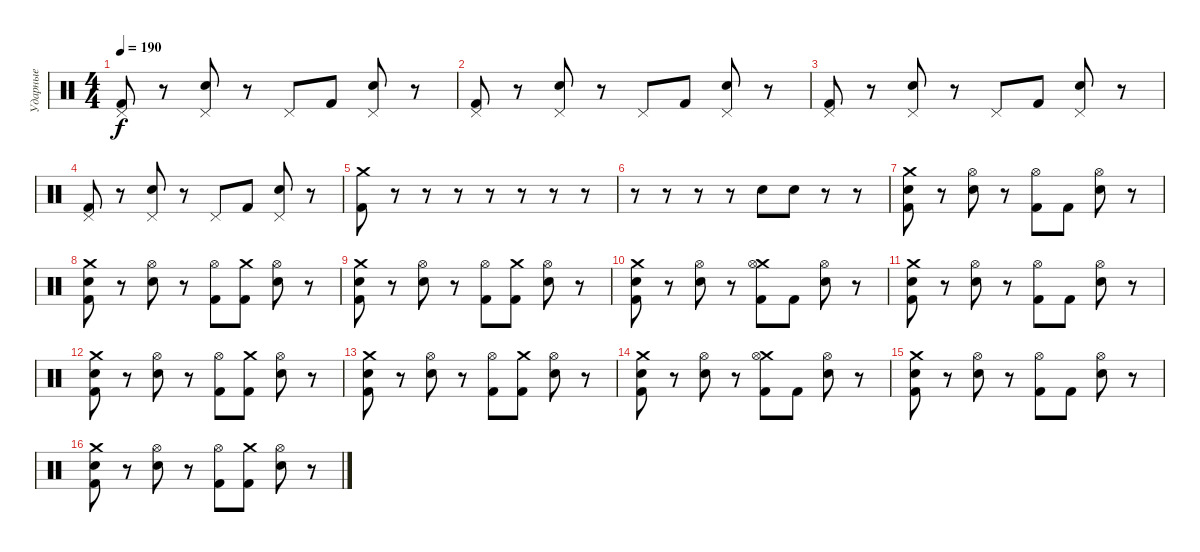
\track ("Ударные" "Ударные") {instrument percussion}
\staff {score}
\articulation defaults
\ts (4 4)
\tempo 190
\clef neutral
\ks c
("Pedal Hi-Hat (hit)" "Kick (hit) 2").8{dy f} r.8 ("Pedal Hi-Hat (hit)" "Electric Snare (hit)").8 r.8 "Pedal Hi-Hat (hit)".8 "Kick (hit) 2".8 ("Pedal Hi-Hat (hit)" "Electric Snare (hit)").8 r.8 |
("Pedal Hi-Hat (hit)" "Kick (hit) 2").8 r.8 ("Pedal Hi-Hat (hit)" "Electric Snare (hit)").8 r.8 "Pedal Hi-Hat (hit)".8 "Kick (hit) 2".8 ("Pedal Hi-Hat (hit)" "Electric Snare (hit)").8 r.8 |
("Pedal Hi-Hat (hit)" "Kick (hit) 2").8 r.8 ("Pedal Hi-Hat (hit)" "Electric Snare (hit)").8 r.8 "Pedal Hi-Hat (hit)".8 "Kick (hit) 2".8 ("Pedal Hi-Hat (hit)" "Electric Snare (hit)").8 r.8 |
("Pedal Hi-Hat (hit)" "Kick (hit) 2").8 r.8 ("Pedal Hi-Hat (hit)" "Electric Snare (hit)").8 r.8 "Pedal Hi-Hat (hit)".8 "Kick (hit) 2".8 ("Pedal Hi-Hat (hit)" "Electric Snare (hit)").8 r.8 |
("Crash medium (hit)" "Kick (hit) 2").8 r.8 r.8 r.8 r.8 r.8 r.8 r.8 |
r.8 r.8 r.8 r.8 "Electric Snare (hit)".8 "Electric Snare (hit)".8 r.8 r.8 |
("Crash medium (hit)" "Electric Snare (hit)" "Kick (hit) 2").8 r.8 ("Electric Snare (hit)" "Hi-Hat (open)").8 r.8 ("Kick (hit) 2" "Hi-Hat (open)").8 "Kick (hit) 2".8 ("Electric Snare (hit)" "Hi-Hat (open)").8 r.8 |
("Crash medium (hit)" "Electric Snare (hit)" "Kick (hit) 2").8 r.8 ("Electric Snare (hit)" "Hi-Hat (open)").8 r.8 ("Kick (hit) 2" "Hi-Hat (open)").8 ("Kick (hit) 2" "Crash medium (hit)").8 ("Electric Snare (hit)" "Hi-Hat (open)").8 r.8 |
("Crash medium (hit)" "Electric Snare (hit)" "Kick (hit) 2").8 r.8 ("Electric Snare (hit)" "Hi-Hat (open)").8 r.8 ("Kick (hit) 2" "Hi-Hat (open)").8 ("Kick (hit) 2" "Crash medium (hit)").8 ("Electric Snare (hit)" "Hi-Hat (open)").8 r.8 |
("Crash medium (hit)" "Electric Snare (hit)" "Kick (hit) 2").8 r.8 ("Electric Snare (hit)" "Hi-Hat (open)").8 r.8 ("Kick (hit) 2" "Crash medium (hit)" "Hi-Hat (open)").8 "Kick (hit) 2".8 ("Electric Snare (hit)" "Hi-Hat (open)").8 r.8 |
("Crash medium (hit)" "Electric Snare (hit)" "Kick (hit) 2").8 r.8 ("Electric Snare (hit)" "Hi-Hat (open)").8 r.8 ("Kick (hit) 2" "Hi-Hat (open)").8 "Kick (hit) 2".8 ("Electric Snare (hit)" "Hi-Hat (open)").8 r.8 |
("Crash medium (hit)" "Electric Snare (hit)" "Kick (hit) 2").8 r.8 ("Electric Snare (hit)" "Hi-Hat (open)").8 r.8 ("Kick (hit) 2" "Hi-Hat (open)").8 ("Kick (hit) 2" "Crash medium (hit)").8 ("Electric Snare (hit)" "Hi-Hat (open)").8 r.8 |
("Crash medium (hit)" "Electric Snare (hit)" "Kick (hit) 2").8 r.8 ("Electric Snare (hit)" "Hi-Hat (open)").8 r.8 ("Kick (hit) 2" "Hi-Hat (open)").8 ("Kick (hit) 2" "Crash medium (hit)").8 ("Electric Snare (hit)" "Hi-Hat (open)").8 r.8 |
("Crash medium (hit)" "Electric Snare (hit)" "Kick (hit) 2").8 r.8 ("Electric Snare (hit)" "Hi-Hat (open)").8 r.8 ("Kick (hit) 2" "Crash medium (hit)" "Hi-Hat (open)").8 "Kick (hit) 2".8 ("Electric Snare (hit)" "Hi-Hat (open)").8 r.8 |
("Crash medium (hit)" "Electric Snare (hit)" "Kick (hit) 2").8 r.8 ("Electric Snare (hit)" "Hi-Hat (open)").8 r.8 ("Kick (hit) 2" "Hi-Hat (open)").8 "Kick (hit) 2".8 ("Electric Snare (hit)" "Hi-Hat (open)").8 r.8 |
("Crash medium (hit)" "Electric Snare (hit)" "Kick (hit) 2").8 r.8 ("Electric Snare (hit)" "Hi-Hat (open)").8 r.8 ("Kick (hit) 2" "Hi-Hat (open)").8 ("Kick (hit) 2" "Crash medium (hit)").8 ("Electric Snare (hit)" "Hi-Hat (open)").8 r.8
